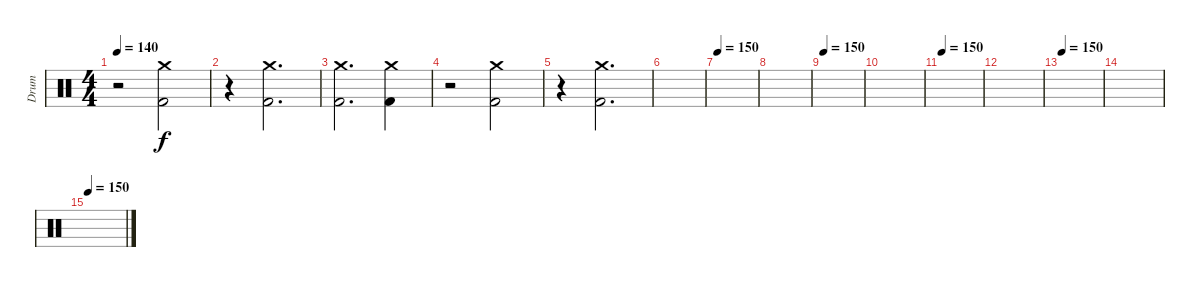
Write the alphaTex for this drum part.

\track ("Drum" "Drum") {instrument percussion}
\staff {score}
\articulation defaults
\ts (4 4)
\tempo 140
\clef neutral
\ks c
r.2{dy f} ("Crash medium (hit)" "Kick (hit) 2").2 |
r.4 ("Crash medium (hit)" "Kick (hit) 2").2{d} |
("Crash medium (hit)" "Kick (hit) 2").2{d} ("Crash medium (hit)" "Kick (hit) 2").4 |
r.2 ("Crash medium (hit)" "Kick (hit) 2").2 |
r.4 ("Crash medium (hit)" "Kick (hit) 2").2{d} |
|
\tempo 150
|
|
\tempo 150
|
|
\tempo 150
|
|
\tempo 150
|
|
\tempo 150
